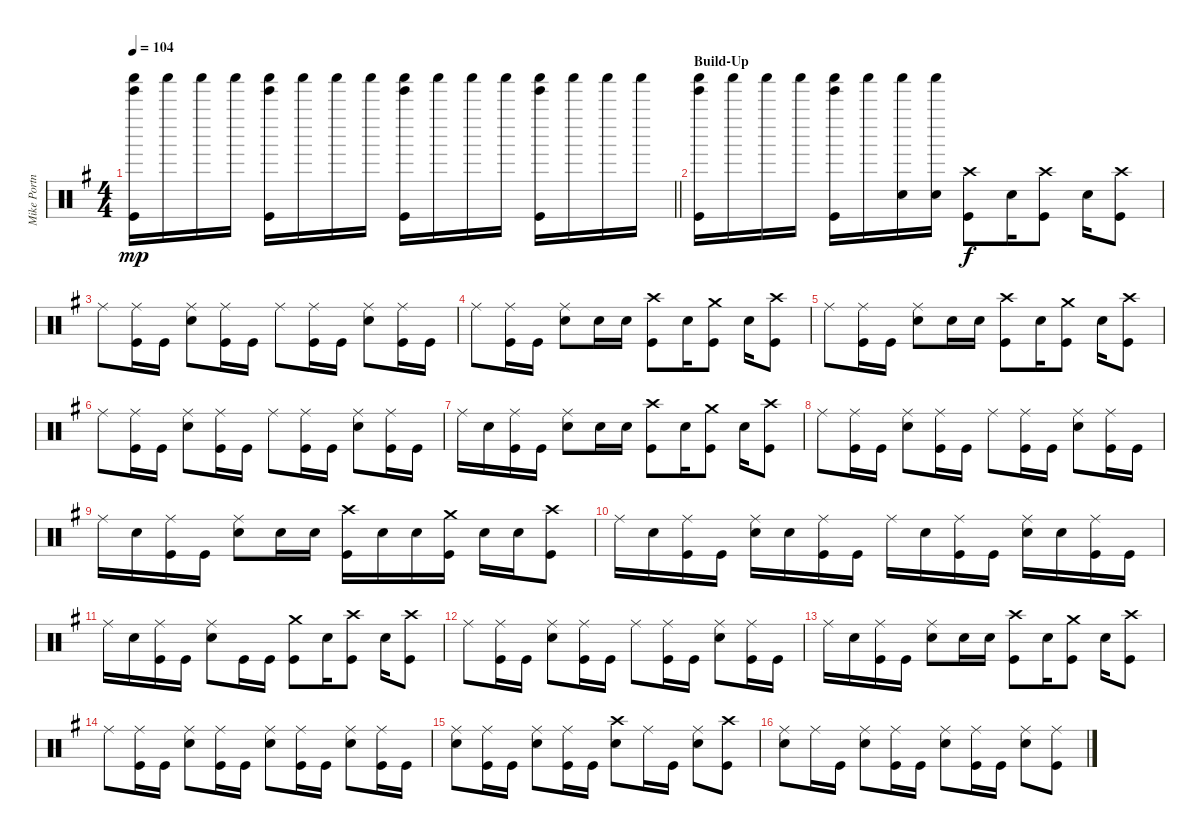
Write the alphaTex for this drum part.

\track ("Mike Portnoy" "Mike Portn") {instrument percussion}
\staff {score}
\articulation defaults
\ts (4 4)
\tempo 104
\clef neutral
\barLineRight lightlight
\ks eminor
("Tinkle Bell (hit)" "Shaker (hit)" "Kick (hit)").16{dy mp} "Shaker (hit)".16 "Shaker (hit)".16 "Shaker (hit)".16 ("Tinkle Bell (hit)" "Shaker (hit)" "Kick (hit)").16 "Shaker (hit)".16 "Shaker (hit)".16 "Shaker (hit)".16 ("Tinkle Bell (hit)" "Shaker (hit)" "Kick (hit)").16 "Shaker (hit)".16 "Shaker (hit)".16 "Shaker (hit)".16 ("Tinkle Bell (hit)" "Shaker (hit)" "Kick (hit)").16 "Shaker (hit)".16 "Shaker (hit)".16 "Shaker (hit)".16 |
\section ("" "Build-Up")
("Tinkle Bell (hit)" "Shaker (hit)" "Kick (hit)").16 "Shaker (hit)".16 "Shaker (hit)".16 "Shaker (hit)".16 ("Tinkle Bell (hit)" "Shaker (hit)" "Kick (hit)").16 "Shaker (hit)".16 ("Shaker (hit)" "Snare (hit) 2").16 ("Shaker (hit)" "Snare (hit) 2").16 ("Crash high (hit)" "Kick (hit)").8{dy f} "Electric Snare (hit)".16 ("Crash high (hit)" "Kick (hit)").8 "Electric Snare (hit)".16 ("Crash high (hit)" "Kick (hit)").8 |
"Ride (middle)".8 ("Ride (middle)" "Kick (hit)").16 "Kick (hit)".16 ("Ride (middle)" "Snare (hit) 2").8 ("Ride (middle)" "Kick (hit)").16 "Kick (hit)".16 "Ride (middle)".8 ("Ride (middle)" "Kick (hit)").16 "Kick (hit)".16 ("Ride (middle)" "Snare (hit) 2").8 ("Ride (middle)" "Kick (hit)").16 "Kick (hit)".16 |
"Ride (middle)".8 ("Ride (middle)" "Kick (hit)").16 "Kick (hit)".16 ("Ride (middle)" "Snare (hit) 2").8 "Snare (hit) 2".16 "Snare (hit) 2".16 ("Crash high (hit)" "Kick (hit)").8 "Electric Snare (hit)".16 ("Crash medium (hit)" "Kick (hit)").8 "Electric Snare (hit)".16 ("Crash high (hit)" "Kick (hit)").8 |
"Ride (middle)".8 ("Ride (middle)" "Kick (hit)").16 "Kick (hit)".16 ("Ride (middle)" "Snare (hit) 2").8 "Snare (hit) 2".16 "Snare (hit) 2".16 ("Crash high (hit)" "Kick (hit)").8 "Electric Snare (hit)".16 ("Crash medium (hit)" "Kick (hit)").8 "Electric Snare (hit)".16 ("Crash high (hit)" "Kick (hit)").8 |
"Ride (middle)".8 ("Ride (middle)" "Kick (hit)").16 "Kick (hit)".16 ("Ride (middle)" "Snare (hit) 2").8 ("Ride (middle)" "Kick (hit)").16 "Kick (hit)".16 "Ride (middle)".8 ("Ride (middle)" "Kick (hit)").16 "Kick (hit)".16 ("Ride (middle)" "Snare (hit) 2").8 ("Ride (middle)" "Kick (hit)").16 "Kick (hit)".16 |
"Ride (middle)".16 "Snare (hit) 2".16 ("Ride (middle)" "Kick (hit)").16 "Kick (hit)".16 ("Ride (middle)" "Snare (hit) 2").8 "Snare (hit) 2".16 "Snare (hit) 2".16 ("Crash high (hit)" "Kick (hit)").8 "Electric Snare (hit)".16 ("Crash medium (hit)" "Kick (hit)").8 "Electric Snare (hit)".16 ("Crash high (hit)" "Kick (hit)").8 |
"Ride (middle)".8 ("Ride (middle)" "Kick (hit)").16 "Kick (hit)".16 ("Ride (middle)" "Snare (hit) 2").8 ("Ride (middle)" "Kick (hit)").16 "Kick (hit)".16 "Ride (middle)".8 ("Ride (middle)" "Kick (hit)").16 "Kick (hit)".16 ("Ride (middle)" "Snare (hit) 2").8 ("Ride (middle)" "Kick (hit)").16 "Kick (hit)".16 |
"Ride (middle)".16 "Snare (hit) 2".16 ("Ride (middle)" "Kick (hit)").16 "Kick (hit)".16 ("Ride (middle)" "Snare (hit) 2").8 "Snare (hit) 2".16 "Snare (hit) 2".16 ("Crash high (hit)" "Kick (hit)").16 "Snare (hit) 2".16 "Snare (hit) 2".16 ("Crash medium (hit)" "Kick (hit)").16 "Snare (hit) 2".16 "Snare (hit) 2".16 ("Crash high (hit)" "Kick (hit)").8 |
"Ride (middle)".16 "Snare (hit) 2".16 ("Ride (middle)" "Kick (hit)").16 "Kick (hit)".16 ("Ride (middle)" "Snare (hit) 2").16 "Snare (hit) 2".16 ("Ride (middle)" "Kick (hit)").16 "Kick (hit)".16 "Ride (middle)".16 "Snare (hit) 2".16 ("Ride (middle)" "Kick (hit)").16 "Kick (hit)".16 ("Ride (middle)" "Snare (hit) 2").16 "Snare (hit) 2".16 ("Ride (middle)" "Kick (hit)").16 "Kick (hit)".16 |
"Ride (middle)".16 "Snare (hit) 2".16 ("Ride (middle)" "Kick (hit)").16 "Kick (hit)".16 ("Ride (middle)" "Snare (hit) 2").8 "Kick (hit)".16 "Kick (hit)".16 ("Crash medium (hit)" "Kick (hit)").8 "Electric Snare (hit)".16 ("Crash high (hit)" "Kick (hit)").8 "Electric Snare (hit)".16 ("Crash high (hit)" "Kick (hit)").8 |
"Ride (middle)".8 ("Ride (middle)" "Kick (hit)").16 "Kick (hit)".16 ("Ride (middle)" "Snare (hit) 2").8 ("Ride (middle)" "Kick (hit)").16 "Kick (hit)".16 "Ride (middle)".8 ("Ride (middle)" "Kick (hit)").16 "Kick (hit)".16 ("Ride (middle)" "Snare (hit) 2").8 ("Ride (middle)" "Kick (hit)").16 "Kick (hit)".16 |
"Ride (middle)".16 "Snare (hit) 2".16 ("Ride (middle)" "Kick (hit)").16 "Kick (hit)".16 ("Ride (middle)" "Snare (hit) 2").8 "Snare (hit) 2".16 "Snare (hit) 2".16 ("Crash high (hit)" "Kick (hit)").8 "Electric Snare (hit)".16 ("Crash medium (hit)" "Kick (hit)").8 "Electric Snare (hit)".16 ("Crash high (hit)" "Kick (hit)").8 |
"Ride (middle)".8 ("Ride (middle)" "Kick (hit)").16 "Kick (hit)".16 ("Ride (middle)" "Snare (hit) 2").8 ("Ride (middle)" "Kick (hit)").16 "Kick (hit)".16 ("Ride (middle)" "Snare (hit) 2").8 ("Ride (middle)" "Kick (hit)").16 "Kick (hit)".16 ("Ride (middle)" "Snare (hit) 2").8 ("Ride (middle)" "Kick (hit)").16 "Kick (hit)".16 |
("Ride (middle)" "Snare (hit) 2").8 ("Ride (middle)" "Kick (hit)").16 "Kick (hit)".16 ("Ride (middle)" "Snare (hit) 2").8 ("Ride (middle)" "Kick (hit)").16 "Kick (hit)".16 ("Crash high (hit)" "Snare (hit) 2").8 "Ride (middle)".16 "Kick (hit)".16 ("Ride (middle)" "Snare (hit) 2").8 ("Crash high (hit)" "Kick (hit)").8 |
("Ride (middle)" "Snare (hit) 2").8 "Ride (middle)".16 "Kick (hit)".16 ("Ride (middle)" "Snare (hit) 2").8 ("Ride (middle)" "Kick (hit)").16 "Kick (hit)".16 ("Ride (middle)" "Snare (hit) 2").8 ("Ride (middle)" "Kick (hit)").16 "Kick (hit)".16 ("Ride (middle)" "Snare (hit) 2").8 ("Ride (middle)" "Kick (hit)").8
